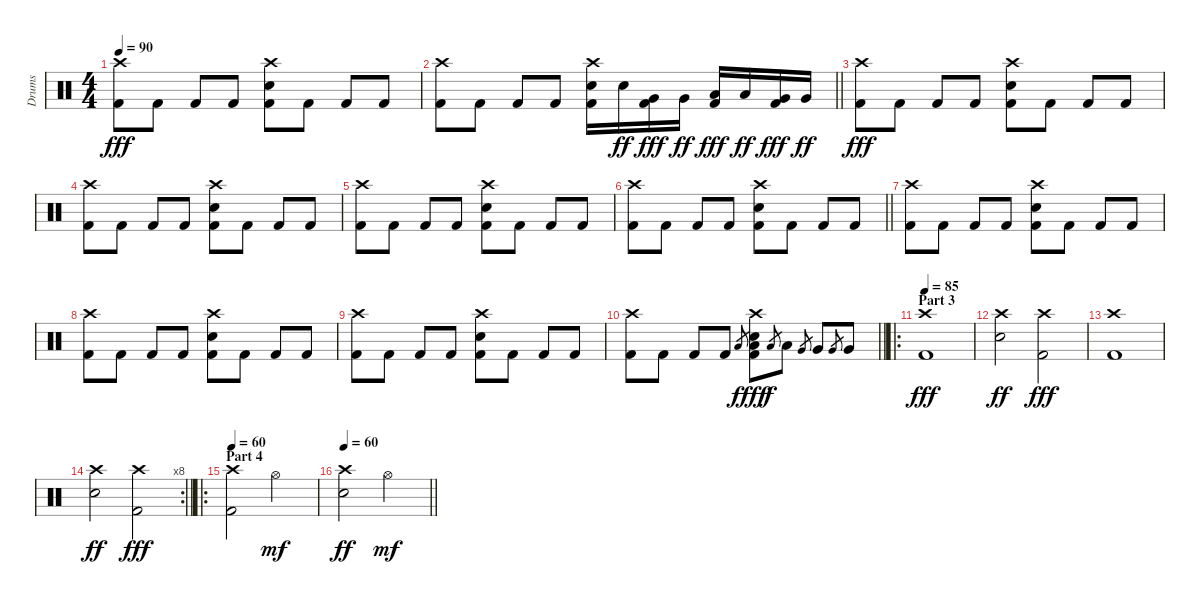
\track ("Drums" "Drums") {instrument percussion}
\staff {score}
\articulation defaults
\ts (4 4)
\tempo 90
\clef neutral
\ks c
("Crash high (hit)" "Kick (hit) 2").8{dy fff} "Kick (hit) 2".8 "Kick (hit) 2".8 "Kick (hit) 2".8 ("Crash high (hit)" "Electric Snare (hit)" "Kick (hit) 2").8 "Kick (hit) 2".8 "Kick (hit) 2".8 "Kick (hit) 2".8 |
\barLineRight lightlight
("Crash high (hit)" "Kick (hit) 2").8 "Kick (hit) 2".8 "Kick (hit) 2".8 "Kick (hit) 2".8 ("Crash high (hit)" "Electric Snare (hit)" "Kick (hit) 2").16 "Electric Snare (hit)".16{dy ff} ("Very Low Tom (hit)" "Kick (hit) 2").16{dy fff} "Very Low Tom (hit)".16{dy ff} ("Low Floor Tom (hit)" "Kick (hit) 2").16{dy fff} "Low Floor Tom (hit)".16{dy ff} ("Very Low Tom (hit)" "Kick (hit) 2").16{dy fff} "Very Low Tom (hit)".16{dy ff} |
("Crash high (hit)" "Kick (hit) 2").8{dy fff} "Kick (hit) 2".8 "Kick (hit) 2".8 "Kick (hit) 2".8 ("Crash high (hit)" "Electric Snare (hit)" "Kick (hit) 2").8 "Kick (hit) 2".8 "Kick (hit) 2".8 "Kick (hit) 2".8 |
("Crash high (hit)" "Kick (hit) 2").8 "Kick (hit) 2".8 "Kick (hit) 2".8 "Kick (hit) 2".8 ("Crash high (hit)" "Electric Snare (hit)" "Kick (hit) 2").8 "Kick (hit) 2".8 "Kick (hit) 2".8 "Kick (hit) 2".8 |
("Crash high (hit)" "Kick (hit) 2").8 "Kick (hit) 2".8 "Kick (hit) 2".8 "Kick (hit) 2".8 ("Crash high (hit)" "Electric Snare (hit)" "Kick (hit) 2").8 "Kick (hit) 2".8 "Kick (hit) 2".8 "Kick (hit) 2".8 |
\barLineRight lightlight
("Crash high (hit)" "Kick (hit) 2").8 "Kick (hit) 2".8 "Kick (hit) 2".8 "Kick (hit) 2".8 ("Crash high (hit)" "Electric Snare (hit)" "Kick (hit) 2").8 "Kick (hit) 2".8 "Kick (hit) 2".8 "Kick (hit) 2".8 |
("Crash high (hit)" "Kick (hit) 2").8 "Kick (hit) 2".8 "Kick (hit) 2".8 "Kick (hit) 2".8 ("Crash high (hit)" "Electric Snare (hit)" "Kick (hit) 2").8 "Kick (hit) 2".8 "Kick (hit) 2".8 "Kick (hit) 2".8 |
("Crash high (hit)" "Kick (hit) 2").8 "Kick (hit) 2".8 "Kick (hit) 2".8 "Kick (hit) 2".8 ("Crash high (hit)" "Electric Snare (hit)" "Kick (hit) 2").8 "Kick (hit) 2".8 "Kick (hit) 2".8 "Kick (hit) 2".8 |
("Crash high (hit)" "Kick (hit) 2").8 "Kick (hit) 2".8 "Kick (hit) 2".8 "Kick (hit) 2".8 ("Crash high (hit)" "Electric Snare (hit)" "Kick (hit) 2").8 "Kick (hit) 2".8 "Kick (hit) 2".8 "Kick (hit) 2".8 |
\barLineRight lightlight
("Crash high (hit)" "Kick (hit) 2").8 "Kick (hit) 2".8 "Kick (hit) 2".8 "Kick (hit) 2".8 "Low Tom (hit)".8{gr dy f} ("Low Tom (hit)" "Crash high (hit)" "Electric Snare (hit)" "Kick (hit) 2").8{dy fff} "Low Tom (hit)".8{gr dy f} "Low Tom (hit)".8 "Very Low Tom (hit)".8{gr} "Very Low Tom (hit)".8 "Very Low Tom (hit)".8{gr} "Very Low Tom (hit)".8 |
\ro
\section ("" "Part 3")
\tempo 85
("Crash high (hit)" "Kick (hit) 2").1{dy fff} |
("Crash high (hit)" "Electric Snare (hit)").2{dy ff} ("Crash high (hit)" "Kick (hit) 2").2{dy fff} |
("Crash high (hit)" "Kick (hit) 2").1 |
\rc 8
\barLineRight lightlight
("Crash high (hit)" "Electric Snare (hit)").2{dy ff} ("Crash high (hit)" "Kick (hit) 2").2{dy fff} |
\ro
\section ("" "Part 4")
\tempo 60
("Crash high (hit)" "Kick (hit) 2").2 "Hi-Hat (open)".2{dy mf} |
\tempo 60
\barLineRight lightlight
("Crash high (hit)" "Electric Snare (hit)").2{dy ff} "Hi-Hat (open)".2{dy mf}
